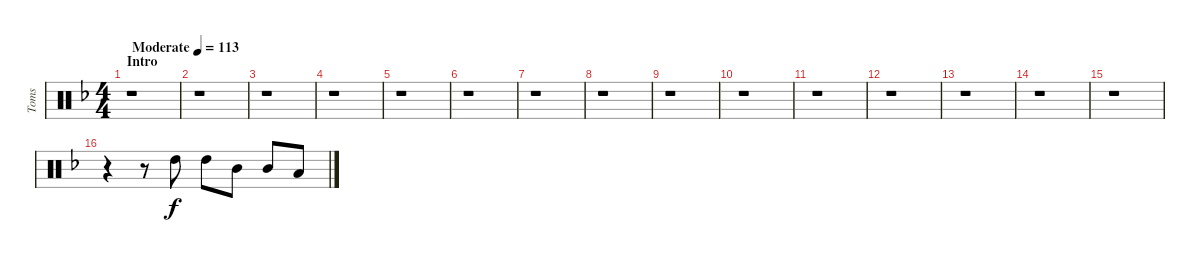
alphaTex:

\track ("Toms" "Toms") {instrument percussion}
\staff {score}
\articulation defaults
\ts (4 4)
\section ("" "Intro")
\tempo (113 "Moderate")
\clef neutral
\ks dminor
r.1{dy f} |
r.1 |
r.1 |
r.1 |
r.1 |
r.1 |
r.1 |
r.1 |
r.1 |
r.1 |
r.1 |
r.1 |
r.1 |
r.1 |
r.1 |
r.4 r.8 "High Tom (hit)".8 "High Tom (hit)".8 "Mid Tom (hit)".8 "Mid Tom (hit)".8 "Low Tom (hit)".8
